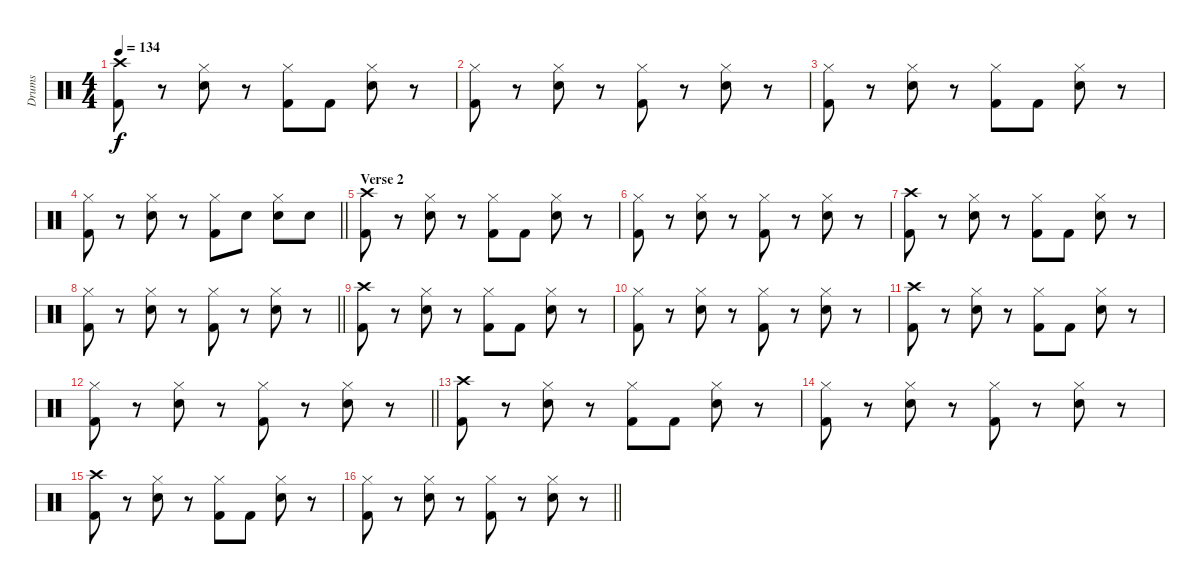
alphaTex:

\track ("Drums" "Drums") {instrument percussion}
\staff {score}
\articulation defaults
\ts (4 4)
\tempo 134
\clef neutral
\ks c
("Crash high (hit)" "Kick (hit) 2").8{dy f} r.8 ("Hi-Hat (closed)" "Snare (hit) 2").8 r.8 ("Hi-Hat (closed)" "Kick (hit) 2").8 "Kick (hit) 2".8 ("Hi-Hat (closed)" "Snare (hit) 2").8 r.8 |
("Hi-Hat (closed)" "Kick (hit) 2").8 r.8 ("Hi-Hat (closed)" "Snare (hit) 2").8 r.8 ("Hi-Hat (closed)" "Kick (hit) 2").8 r.8 ("Hi-Hat (closed)" "Snare (hit) 2").8 r.8 |
("Hi-Hat (closed)" "Kick (hit) 2").8 r.8 ("Hi-Hat (closed)" "Snare (hit) 2").8 r.8 ("Hi-Hat (closed)" "Kick (hit) 2").8 "Kick (hit) 2".8 ("Hi-Hat (closed)" "Snare (hit) 2").8 r.8 |
\barLineRight lightlight
("Hi-Hat (closed)" "Kick (hit) 2").8 r.8 ("Hi-Hat (closed)" "Snare (hit) 2").8 r.8 ("Hi-Hat (closed)" "Kick (hit) 2").8 "Snare (hit) 2".8 ("Hi-Hat (closed)" "Snare (hit) 2").8 "Snare (hit) 2".8 |
\section ("" "Verse 2")
("Crash high (hit)" "Kick (hit) 2").8 r.8 ("Hi-Hat (closed)" "Snare (hit) 2").8 r.8 ("Hi-Hat (closed)" "Kick (hit) 2").8 "Kick (hit) 2".8 ("Hi-Hat (closed)" "Snare (hit) 2").8 r.8 |
("Hi-Hat (closed)" "Kick (hit) 2").8 r.8 ("Hi-Hat (closed)" "Snare (hit) 2").8 r.8 ("Hi-Hat (closed)" "Kick (hit) 2").8 r.8 ("Hi-Hat (closed)" "Snare (hit) 2").8 r.8 |
("Crash high (hit)" "Kick (hit) 2").8 r.8 ("Hi-Hat (closed)" "Snare (hit) 2").8 r.8 ("Hi-Hat (closed)" "Kick (hit) 2").8 "Kick (hit) 2".8 ("Hi-Hat (closed)" "Snare (hit) 2").8 r.8 |
\barLineRight lightlight
("Hi-Hat (closed)" "Kick (hit) 2").8 r.8 ("Hi-Hat (closed)" "Snare (hit) 2").8 r.8 ("Hi-Hat (closed)" "Kick (hit) 2").8 r.8 ("Hi-Hat (closed)" "Snare (hit) 2").8 r.8 |
("Crash high (hit)" "Kick (hit) 2").8 r.8 ("Hi-Hat (closed)" "Snare (hit) 2").8 r.8 ("Hi-Hat (closed)" "Kick (hit) 2").8 "Kick (hit) 2".8 ("Hi-Hat (closed)" "Snare (hit) 2").8 r.8 |
("Hi-Hat (closed)" "Kick (hit) 2").8 r.8 ("Hi-Hat (closed)" "Snare (hit) 2").8 r.8 ("Hi-Hat (closed)" "Kick (hit) 2").8 r.8 ("Hi-Hat (closed)" "Snare (hit) 2").8 r.8 |
("Crash high (hit)" "Kick (hit) 2").8 r.8 ("Hi-Hat (closed)" "Snare (hit) 2").8 r.8 ("Hi-Hat (closed)" "Kick (hit) 2").8 "Kick (hit) 2".8 ("Hi-Hat (closed)" "Snare (hit) 2").8 r.8 |
\barLineRight lightlight
("Hi-Hat (closed)" "Kick (hit) 2").8 r.8 ("Hi-Hat (closed)" "Snare (hit) 2").8 r.8 ("Hi-Hat (closed)" "Kick (hit) 2").8 r.8 ("Hi-Hat (closed)" "Snare (hit) 2").8 r.8 |
("Crash high (hit)" "Kick (hit) 2").8 r.8 ("Hi-Hat (closed)" "Snare (hit) 2").8 r.8 ("Hi-Hat (closed)" "Kick (hit) 2").8 "Kick (hit) 2".8 ("Hi-Hat (closed)" "Snare (hit) 2").8 r.8 |
("Hi-Hat (closed)" "Kick (hit) 2").8 r.8 ("Hi-Hat (closed)" "Snare (hit) 2").8 r.8 ("Hi-Hat (closed)" "Kick (hit) 2").8 r.8 ("Hi-Hat (closed)" "Snare (hit) 2").8 r.8 |
("Crash high (hit)" "Kick (hit) 2").8 r.8 ("Hi-Hat (closed)" "Snare (hit) 2").8 r.8 ("Hi-Hat (closed)" "Kick (hit) 2").8 "Kick (hit) 2".8 ("Hi-Hat (closed)" "Snare (hit) 2").8 r.8 |
\barLineRight lightlight
("Hi-Hat (closed)" "Kick (hit) 2").8 r.8 ("Hi-Hat (closed)" "Snare (hit) 2").8 r.8 ("Hi-Hat (closed)" "Kick (hit) 2").8 r.8 ("Hi-Hat (closed)" "Snare (hit) 2").8 r.8
